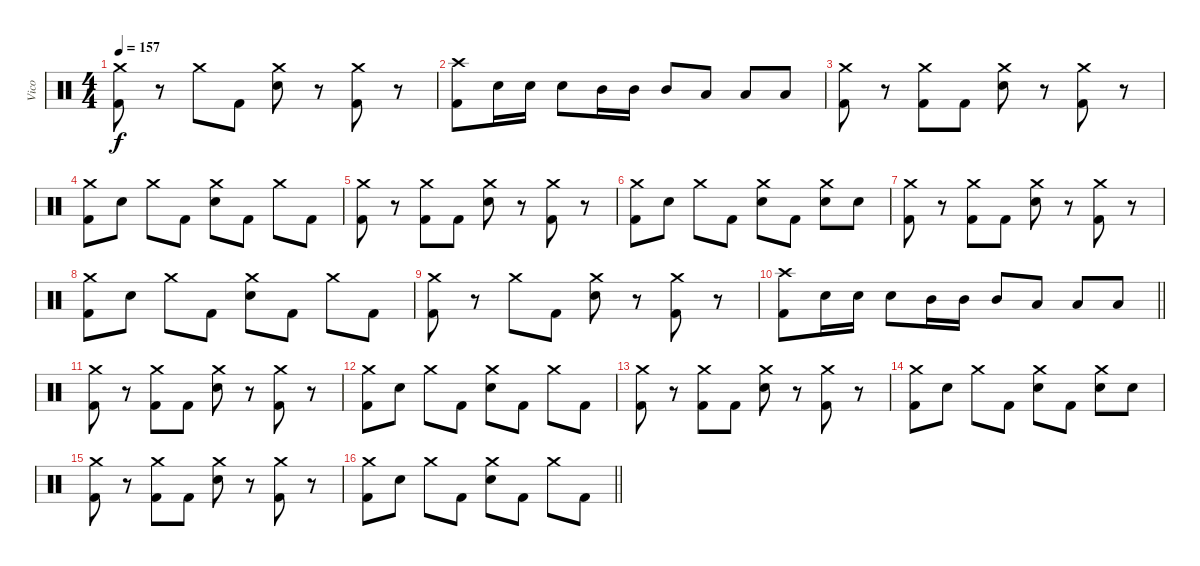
\track ("Vico" "Vico") {instrument percussion}
\staff {score}
\articulation defaults
\ts (4 4)
\tempo 157
\clef neutral
\ks c
("Crash medium (hit)" "Kick (hit) 2").8{dy f} r.8 "Crash medium (hit)".8 "Kick (hit) 2".8 ("Crash medium (hit)" "Electric Snare (hit)").8 r.8 ("Crash medium (hit)" "Kick (hit) 2").8 r.8 |
("Crash high (hit)" "Kick (hit) 2").8 "Electric Snare (hit)".16 "Electric Snare (hit)".16 "Electric Snare (hit)".8 "Mid Tom (hit)".16 "Mid Tom (hit)".16 "Mid Tom (hit)".8 "Low Tom (hit)".8 "Low Tom (hit)".8 "Low Tom (hit)".8 |
("Crash medium (hit)" "Kick (hit) 2").8 r.8 ("Crash medium (hit)" "Kick (hit) 2").8 "Kick (hit) 2".8 ("Crash medium (hit)" "Electric Snare (hit)").8 r.8 ("Crash medium (hit)" "Kick (hit) 2").8 r.8 |
("Crash medium (hit)" "Kick (hit) 2").8 "Electric Snare (hit)".8 "Crash medium (hit)".8 "Kick (hit) 2".8 ("Crash medium (hit)" "Electric Snare (hit)").8 "Kick (hit) 2".8 "Crash medium (hit)".8 "Kick (hit) 2".8 |
("Crash medium (hit)" "Kick (hit) 2").8 r.8 ("Crash medium (hit)" "Kick (hit) 2").8 "Kick (hit) 2".8 ("Crash medium (hit)" "Electric Snare (hit)").8 r.8 ("Crash medium (hit)" "Kick (hit) 2").8 r.8 |
("Crash medium (hit)" "Kick (hit) 2").8 "Electric Snare (hit)".8 "Crash medium (hit)".8 "Kick (hit) 2".8 ("Crash medium (hit)" "Electric Snare (hit)").8 "Kick (hit) 2".8 ("Crash medium (hit)" "Electric Snare (hit)").8 "Electric Snare (hit)".8 |
("Crash medium (hit)" "Kick (hit) 2").8 r.8 ("Crash medium (hit)" "Kick (hit) 2").8 "Kick (hit) 2".8 ("Crash medium (hit)" "Electric Snare (hit)").8 r.8 ("Crash medium (hit)" "Kick (hit) 2").8 r.8 |
("Crash medium (hit)" "Kick (hit) 2").8 "Electric Snare (hit)".8 "Crash medium (hit)".8 "Kick (hit) 2".8 ("Crash medium (hit)" "Electric Snare (hit)").8 "Kick (hit) 2".8 "Crash medium (hit)".8 "Kick (hit) 2".8 |
("Crash medium (hit)" "Kick (hit) 2").8 r.8 "Crash medium (hit)".8 "Kick (hit) 2".8 ("Crash medium (hit)" "Electric Snare (hit)").8 r.8 ("Crash medium (hit)" "Kick (hit) 2").8 r.8 |
\barLineRight lightlight
("Crash high (hit)" "Kick (hit) 2").8 "Electric Snare (hit)".16 "Electric Snare (hit)".16 "Electric Snare (hit)".8 "Mid Tom (hit)".16 "Mid Tom (hit)".16 "Mid Tom (hit)".8 "Low Tom (hit)".8 "Low Tom (hit)".8 "Low Tom (hit)".8 |
("Crash medium (hit)" "Kick (hit) 2").8 r.8 ("Crash medium (hit)" "Kick (hit) 2").8 "Kick (hit) 2".8 ("Crash medium (hit)" "Electric Snare (hit)").8 r.8 ("Crash medium (hit)" "Kick (hit) 2").8 r.8 |
("Crash medium (hit)" "Kick (hit) 2").8 "Electric Snare (hit)".8 "Crash medium (hit)".8 "Kick (hit) 2".8 ("Crash medium (hit)" "Electric Snare (hit)").8 "Kick (hit) 2".8 "Crash medium (hit)".8 "Kick (hit) 2".8 |
("Crash medium (hit)" "Kick (hit) 2").8 r.8 ("Crash medium (hit)" "Kick (hit) 2").8 "Kick (hit) 2".8 ("Crash medium (hit)" "Electric Snare (hit)").8 r.8 ("Crash medium (hit)" "Kick (hit) 2").8 r.8 |
("Crash medium (hit)" "Kick (hit) 2").8 "Electric Snare (hit)".8 "Crash medium (hit)".8 "Kick (hit) 2".8 ("Crash medium (hit)" "Electric Snare (hit)").8 "Kick (hit) 2".8 ("Crash medium (hit)" "Electric Snare (hit)").8 "Electric Snare (hit)".8 |
("Crash medium (hit)" "Kick (hit) 2").8 r.8 ("Crash medium (hit)" "Kick (hit) 2").8 "Kick (hit) 2".8 ("Crash medium (hit)" "Electric Snare (hit)").8 r.8 ("Crash medium (hit)" "Kick (hit) 2").8 r.8 |
\barLineRight lightlight
("Crash medium (hit)" "Kick (hit) 2").8 "Electric Snare (hit)".8 "Crash medium (hit)".8 "Kick (hit) 2".8 ("Crash medium (hit)" "Electric Snare (hit)").8 "Kick (hit) 2".8 "Crash medium (hit)".8 "Kick (hit) 2".8
